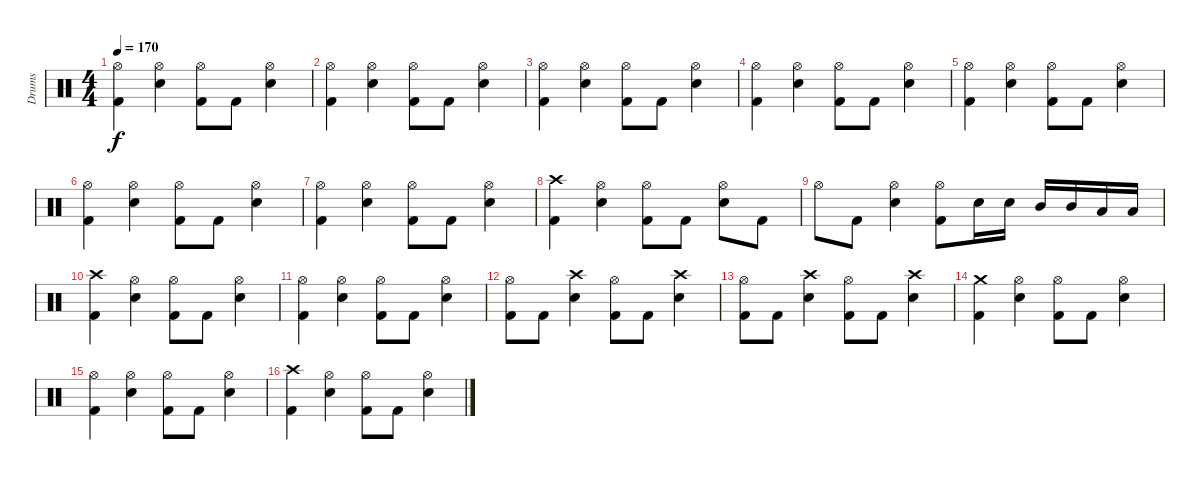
\track ("Drums" "Drums") {instrument percussion}
\staff {score}
\articulation defaults
\ts (4 4)
\tempo 170
\clef neutral
\ks c
("Hi-Hat (open)" "Kick (hit) 2").4{dy f} ("Hi-Hat (open)" "Snare (hit) 2").4 ("Hi-Hat (open)" "Kick (hit) 2").8 "Kick (hit) 2".8 ("Hi-Hat (open)" "Snare (hit) 2").4 |
("Hi-Hat (open)" "Kick (hit) 2").4 ("Hi-Hat (open)" "Snare (hit) 2").4 ("Hi-Hat (open)" "Kick (hit) 2").8 "Kick (hit) 2".8 ("Hi-Hat (open)" "Snare (hit) 2").4 |
("Hi-Hat (open)" "Kick (hit) 2").4 ("Hi-Hat (open)" "Snare (hit) 2").4 ("Hi-Hat (open)" "Kick (hit) 2").8 "Kick (hit) 2".8 ("Hi-Hat (open)" "Snare (hit) 2").4 |
("Hi-Hat (open)" "Kick (hit) 2").4 ("Hi-Hat (open)" "Snare (hit) 2").4 ("Hi-Hat (open)" "Kick (hit) 2").8 "Kick (hit) 2".8 ("Hi-Hat (open)" "Snare (hit) 2").4 |
("Hi-Hat (open)" "Kick (hit) 2").4 ("Hi-Hat (open)" "Snare (hit) 2").4 ("Hi-Hat (open)" "Kick (hit) 2").8 "Kick (hit) 2".8 ("Hi-Hat (open)" "Snare (hit) 2").4 |
("Hi-Hat (open)" "Kick (hit) 2").4 ("Hi-Hat (open)" "Snare (hit) 2").4 ("Hi-Hat (open)" "Kick (hit) 2").8 "Kick (hit) 2".8 ("Hi-Hat (open)" "Snare (hit) 2").4 |
("Hi-Hat (open)" "Kick (hit) 2").4 ("Hi-Hat (open)" "Snare (hit) 2").4 ("Hi-Hat (open)" "Kick (hit) 2").8 "Kick (hit) 2".8 ("Hi-Hat (open)" "Snare (hit) 2").4 |
("Crash high (hit)" "Kick (hit) 2").4 ("Hi-Hat (open)" "Snare (hit) 2").4 ("Hi-Hat (open)" "Kick (hit) 2").8 "Kick (hit) 2".8 ("Hi-Hat (open)" "Snare (hit) 2").8 "Kick (hit) 2".8 |
"Hi-Hat (open)".8 "Kick (hit) 2".8 ("Hi-Hat (open)" "Snare (hit) 2").4 ("Hi-Hat (open)" "Kick (hit) 2").8 "Snare (hit) 2".16 "Snare (hit) 2".16 "Mid Tom (hit)".16 "Mid Tom (hit)".16 "Low Tom (hit)".16 "Low Tom (hit)".16 |
("Crash high (hit)" "Kick (hit) 2").4 ("Hi-Hat (open)" "Snare (hit) 2").4 ("Hi-Hat (open)" "Kick (hit) 2").8 "Kick (hit) 2".8 ("Hi-Hat (open)" "Snare (hit) 2").4 |
("Hi-Hat (open)" "Kick (hit) 2").4 ("Hi-Hat (open)" "Snare (hit) 2").4 ("Hi-Hat (open)" "Kick (hit) 2").8 "Kick (hit) 2".8 ("Hi-Hat (open)" "Snare (hit) 2").4 |
("Hi-Hat (open)" "Kick (hit) 2").8 "Kick (hit) 2".8 ("Crash high (hit)" "Snare (hit) 2").4 ("Hi-Hat (open)" "Kick (hit) 2").8 "Kick (hit) 2".8 ("Crash high (hit)" "Snare (hit) 2").4 |
("Hi-Hat (open)" "Kick (hit) 2").8 "Kick (hit) 2".8 ("Crash high (hit)" "Snare (hit) 2").4 ("Hi-Hat (open)" "Kick (hit) 2").8 "Kick (hit) 2".8 ("Crash high (hit)" "Snare (hit) 2").4 |
("Crash medium (hit)" "Kick (hit) 2").4 ("Hi-Hat (open)" "Snare (hit) 2").4 ("Hi-Hat (open)" "Kick (hit) 2").8 "Kick (hit) 2".8 ("Hi-Hat (open)" "Snare (hit) 2").4 |
("Hi-Hat (open)" "Kick (hit) 2").4 ("Hi-Hat (open)" "Snare (hit) 2").4 ("Hi-Hat (open)" "Kick (hit) 2").8 "Kick (hit) 2".8 ("Hi-Hat (open)" "Snare (hit) 2").4 |
("Crash high (hit)" "Kick (hit) 2").4 ("Hi-Hat (open)" "Snare (hit) 2").4 ("Hi-Hat (open)" "Kick (hit) 2").8 "Kick (hit) 2".8 ("Hi-Hat (open)" "Snare (hit) 2").4
